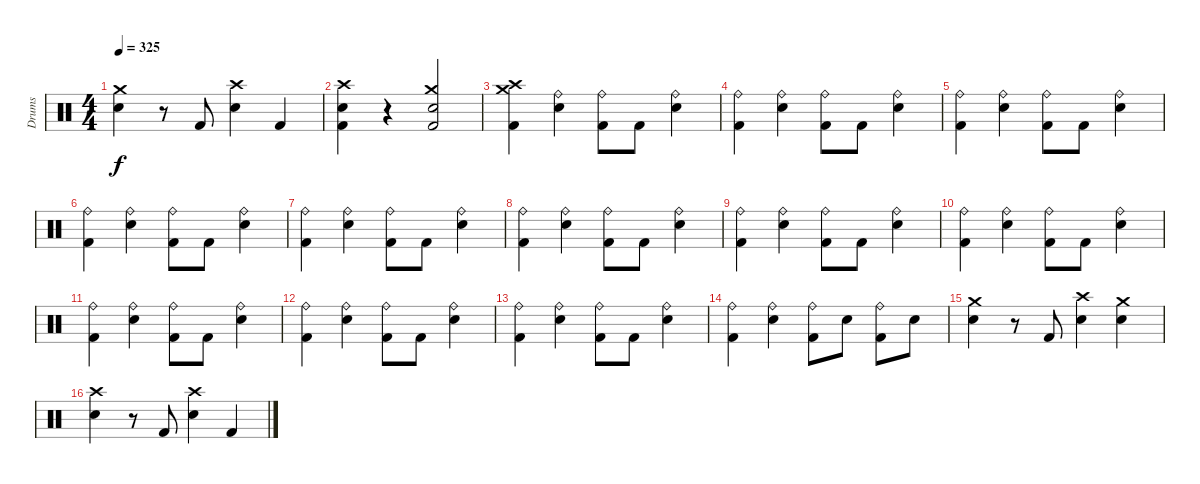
\track ("Drums" "Drums") {instrument percussion}
\staff {score}
\articulation defaults
\ts (4 4)
\tempo 325
\clef neutral
\ks c
("Electric Snare (hit)" "Crash medium (hit)").4{dy f} r.8 "Kick (hit) 2".8 ("Crash high (hit)" "Electric Snare (hit)").4 "Kick (hit) 2".4 |
("Electric Snare (hit)" "Kick (hit) 2" "Crash high (hit)").4 r.4 ("Electric Snare (hit)" "Kick (hit) 2" "Crash medium (hit)").2 |
("Kick (hit) 2" "Crash high (hit)" "Crash medium (hit)").4 ("Electric Snare (hit)" "Ride (bell)").4 ("Kick (hit) 2" "Ride (bell)").8 "Kick (hit) 2".8 ("Electric Snare (hit)" "Ride (bell)").4 |
("Kick (hit) 2" "Ride (bell)").4 ("Electric Snare (hit)" "Ride (bell)").4 ("Kick (hit) 2" "Ride (bell)").8 "Kick (hit) 2".8 ("Electric Snare (hit)" "Ride (bell)").4 |
("Kick (hit) 2" "Ride (bell)").4 ("Electric Snare (hit)" "Ride (bell)").4 ("Kick (hit) 2" "Ride (bell)").8 "Kick (hit) 2".8 ("Electric Snare (hit)" "Ride (bell)").4 |
("Kick (hit) 2" "Ride (bell)").4 ("Electric Snare (hit)" "Ride (bell)").4 ("Kick (hit) 2" "Ride (bell)").8 "Kick (hit) 2".8 ("Electric Snare (hit)" "Ride (bell)").4 |
("Ride (bell)" "Kick (hit) 2").4 ("Electric Snare (hit)" "Ride (bell)").4 ("Kick (hit) 2" "Ride (bell)").8 "Kick (hit) 2".8 ("Electric Snare (hit)" "Ride (bell)").4 |
("Kick (hit) 2" "Ride (bell)").4 ("Electric Snare (hit)" "Ride (bell)").4 ("Kick (hit) 2" "Ride (bell)").8 "Kick (hit) 2".8 ("Electric Snare (hit)" "Ride (bell)").4 |
("Kick (hit) 2" "Ride (bell)").4 ("Electric Snare (hit)" "Ride (bell)").4 ("Kick (hit) 2" "Ride (bell)").8 "Kick (hit) 2".8 ("Electric Snare (hit)" "Ride (bell)").4 |
("Kick (hit) 2" "Ride (bell)").4 ("Electric Snare (hit)" "Ride (bell)").4 ("Kick (hit) 2" "Ride (bell)").8 "Kick (hit) 2".8 ("Electric Snare (hit)" "Ride (bell)").4 |
("Ride (bell)" "Kick (hit) 2").4 ("Electric Snare (hit)" "Ride (bell)").4 ("Kick (hit) 2" "Ride (bell)").8 "Kick (hit) 2".8 ("Electric Snare (hit)" "Ride (bell)").4 |
("Kick (hit) 2" "Ride (bell)").4 ("Electric Snare (hit)" "Ride (bell)").4 ("Kick (hit) 2" "Ride (bell)").8 "Kick (hit) 2".8 ("Electric Snare (hit)" "Ride (bell)").4 |
("Kick (hit) 2" "Ride (bell)").4 ("Electric Snare (hit)" "Ride (bell)").4 ("Kick (hit) 2" "Ride (bell)").8 "Kick (hit) 2".8 ("Electric Snare (hit)" "Ride (bell)").4 |
("Ride (bell)" "Kick (hit) 2").4 ("Electric Snare (hit)" "Ride (bell)").4 ("Kick (hit) 2" "Ride (bell)").8 "Electric Snare (hit)".8 ("Kick (hit) 2" "Ride (bell)").8 "Electric Snare (hit)".8 |
("Electric Snare (hit)" "Crash medium (hit)").4 r.8 "Kick (hit) 2".8 ("Crash high (hit)" "Electric Snare (hit)").4 ("Crash medium (hit)" "Electric Snare (hit)").4 |
("Electric Snare (hit)" "Crash high (hit)").4 r.8 "Kick (hit) 2".8 ("Crash high (hit)" "Electric Snare (hit)").4 "Kick (hit) 2".4
